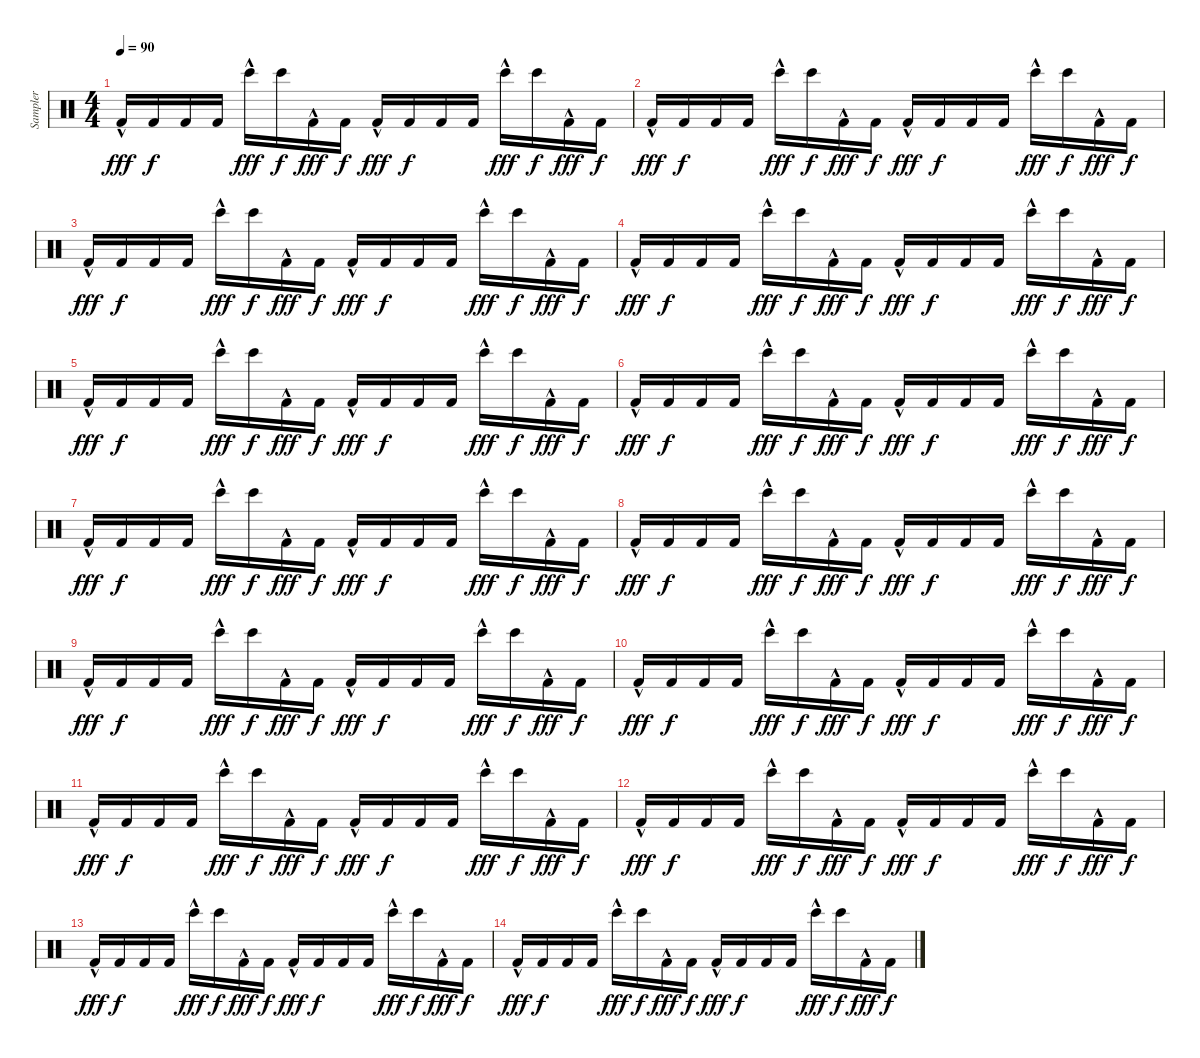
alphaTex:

\track ("Sampler" "Sampler") {instrument percussion}
\staff {score}
\articulation defaults
\ts (4 4)
\tempo 90
\clef neutral
\ks c "Kick (hit) 2"{hac}.16{dy fff} "Kick (hit) 2".16{dy f} "Kick (hit) 2".16 "Kick (hit) 2".16 "Bongo High (hit)"{hac}.16{dy fff} "Bongo High (hit)".16{dy f} "Kick (hit) 2"{hac}.16{dy fff} "Kick (hit) 2".16{dy f} "Kick (hit) 2"{hac}.16{dy fff} "Kick (hit) 2".16{dy f} "Kick (hit) 2".16 "Kick (hit) 2".16 "Bongo High (hit)"{hac}.16{dy fff} "Bongo High (hit)".16{dy f} "Kick (hit) 2"{hac}.16{dy fff} "Kick (hit) 2".16{dy f}
|
"Kick (hit) 2"{hac}.16{dy fff} "Kick (hit) 2".16{dy f} "Kick (hit) 2".16 "Kick (hit) 2".16 "Bongo High (hit)"{hac}.16{dy fff} "Bongo High (hit)".16{dy f} "Kick (hit) 2"{hac}.16{dy fff} "Kick (hit) 2".16{dy f} "Kick (hit) 2"{hac}.16{dy fff} "Kick (hit) 2".16{dy f} "Kick (hit) 2".16 "Kick (hit) 2".16 "Bongo High (hit)"{hac}.16{dy fff} "Bongo High (hit)".16{dy f} "Kick (hit) 2"{hac}.16{dy fff} "Kick (hit) 2".16{dy f} |
"Kick (hit) 2"{hac}.16{dy fff} "Kick (hit) 2".16{dy f} "Kick (hit) 2".16 "Kick (hit) 2".16 "Bongo High (hit)"{hac}.16{dy fff} "Bongo High (hit)".16{dy f} "Kick (hit) 2"{hac}.16{dy fff} "Kick (hit) 2".16{dy f} "Kick (hit) 2"{hac}.16{dy fff} "Kick (hit) 2".16{dy f} "Kick (hit) 2".16 "Kick (hit) 2".16 "Bongo High (hit)"{hac}.16{dy fff} "Bongo High (hit)".16{dy f} "Kick (hit) 2"{hac}.16{dy fff} "Kick (hit) 2".16{dy f} |
"Kick (hit) 2"{hac}.16{dy fff} "Kick (hit) 2".16{dy f} "Kick (hit) 2".16 "Kick (hit) 2".16 "Bongo High (hit)"{hac}.16{dy fff} "Bongo High (hit)".16{dy f} "Kick (hit) 2"{hac}.16{dy fff} "Kick (hit) 2".16{dy f} "Kick (hit) 2"{hac}.16{dy fff} "Kick (hit) 2".16{dy f} "Kick (hit) 2".16 "Kick (hit) 2".16 "Bongo High (hit)"{hac}.16{dy fff} "Bongo High (hit)".16{dy f} "Kick (hit) 2"{hac}.16{dy fff} "Kick (hit) 2".16{dy f} |
"Kick (hit) 2"{hac}.16{dy fff} "Kick (hit) 2".16{dy f} "Kick (hit) 2".16 "Kick (hit) 2".16 "Bongo High (hit)"{hac}.16{dy fff} "Bongo High (hit)".16{dy f} "Kick (hit) 2"{hac}.16{dy fff} "Kick (hit) 2".16{dy f} "Kick (hit) 2"{hac}.16{dy fff} "Kick (hit) 2".16{dy f} "Kick (hit) 2".16 "Kick (hit) 2".16 "Bongo High (hit)"{hac}.16{dy fff} "Bongo High (hit)".16{dy f} "Kick (hit) 2"{hac}.16{dy fff} "Kick (hit) 2".16{dy f} |
"Kick (hit) 2"{hac}.16{dy fff} "Kick (hit) 2".16{dy f} "Kick (hit) 2".16 "Kick (hit) 2".16 "Bongo High (hit)"{hac}.16{dy fff} "Bongo High (hit)".16{dy f} "Kick (hit) 2"{hac}.16{dy fff} "Kick (hit) 2".16{dy f} "Kick (hit) 2"{hac}.16{dy fff} "Kick (hit) 2".16{dy f} "Kick (hit) 2".16 "Kick (hit) 2".16 "Bongo High (hit)"{hac}.16{dy fff} "Bongo High (hit)".16{dy f} "Kick (hit) 2"{hac}.16{dy fff} "Kick (hit) 2".16{dy f} |
"Kick (hit) 2"{hac}.16{dy fff} "Kick (hit) 2".16{dy f} "Kick (hit) 2".16 "Kick (hit) 2".16 "Bongo High (hit)"{hac}.16{dy fff} "Bongo High (hit)".16{dy f} "Kick (hit) 2"{hac}.16{dy fff} "Kick (hit) 2".16{dy f} "Kick (hit) 2"{hac}.16{dy fff} "Kick (hit) 2".16{dy f} "Kick (hit) 2".16 "Kick (hit) 2".16 "Bongo High (hit)"{hac}.16{dy fff} "Bongo High (hit)".16{dy f} "Kick (hit) 2"{hac}.16{dy fff} "Kick (hit) 2".16{dy f} |
"Kick (hit) 2"{hac}.16{dy fff} "Kick (hit) 2".16{dy f} "Kick (hit) 2".16 "Kick (hit) 2".16 "Bongo High (hit)"{hac}.16{dy fff} "Bongo High (hit)".16{dy f} "Kick (hit) 2"{hac}.16{dy fff} "Kick (hit) 2".16{dy f} "Kick (hit) 2"{hac}.16{dy fff} "Kick (hit) 2".16{dy f} "Kick (hit) 2".16 "Kick (hit) 2".16 "Bongo High (hit)"{hac}.16{dy fff} "Bongo High (hit)".16{dy f} "Kick (hit) 2"{hac}.16{dy fff} "Kick (hit) 2".16{dy f} |
"Kick (hit) 2"{hac}.16{dy fff} "Kick (hit) 2".16{dy f} "Kick (hit) 2".16 "Kick (hit) 2".16 "Bongo High (hit)"{hac}.16{dy fff} "Bongo High (hit)".16{dy f} "Kick (hit) 2"{hac}.16{dy fff} "Kick (hit) 2".16{dy f} "Kick (hit) 2"{hac}.16{dy fff} "Kick (hit) 2".16{dy f} "Kick (hit) 2".16 "Kick (hit) 2".16 "Bongo High (hit)"{hac}.16{dy fff} "Bongo High (hit)".16{dy f} "Kick (hit) 2"{hac}.16{dy fff} "Kick (hit) 2".16{dy f} |
"Kick (hit) 2"{hac}.16{dy fff} "Kick (hit) 2".16{dy f} "Kick (hit) 2".16 "Kick (hit) 2".16 "Bongo High (hit)"{hac}.16{dy fff} "Bongo High (hit)".16{dy f} "Kick (hit) 2"{hac}.16{dy fff} "Kick (hit) 2".16{dy f} "Kick (hit) 2"{hac}.16{dy fff} "Kick (hit) 2".16{dy f} "Kick (hit) 2".16 "Kick (hit) 2".16 "Bongo High (hit)"{hac}.16{dy fff} "Bongo High (hit)".16{dy f} "Kick (hit) 2"{hac}.16{dy fff} "Kick (hit) 2".16{dy f} |
"Kick (hit) 2"{hac}.16{dy fff} "Kick (hit) 2".16{dy f} "Kick (hit) 2".16 "Kick (hit) 2".16 "Bongo High (hit)"{hac}.16{dy fff} "Bongo High (hit)".16{dy f} "Kick (hit) 2"{hac}.16{dy fff} "Kick (hit) 2".16{dy f} "Kick (hit) 2"{hac}.16{dy fff} "Kick (hit) 2".16{dy f} "Kick (hit) 2".16 "Kick (hit) 2".16 "Bongo High (hit)"{hac}.16{dy fff} "Bongo High (hit)".16{dy f} "Kick (hit) 2"{hac}.16{dy fff} "Kick (hit) 2".16{dy f} |
"Kick (hit) 2"{hac}.16{dy fff} "Kick (hit) 2".16{dy f} "Kick (hit) 2".16 "Kick (hit) 2".16 "Bongo High (hit)"{hac}.16{dy fff} "Bongo High (hit)".16{dy f} "Kick (hit) 2"{hac}.16{dy fff} "Kick (hit) 2".16{dy f} "Kick (hit) 2"{hac}.16{dy fff} "Kick (hit) 2".16{dy f} "Kick (hit) 2".16 "Kick (hit) 2".16 "Bongo High (hit)"{hac}.16{dy fff} "Bongo High (hit)".16{dy f} "Kick (hit) 2"{hac}.16{dy fff} "Kick (hit) 2".16{dy f} |
"Kick (hit) 2"{hac}.16{dy fff} "Kick (hit) 2".16{dy f} "Kick (hit) 2".16 "Kick (hit) 2".16 "Bongo High (hit)"{hac}.16{dy fff} "Bongo High (hit)".16{dy f} "Kick (hit) 2"{hac}.16{dy fff} "Kick (hit) 2".16{dy f} "Kick (hit) 2"{hac}.16{dy fff} "Kick (hit) 2".16{dy f} "Kick (hit) 2".16 "Kick (hit) 2".16 "Bongo High (hit)"{hac}.16{dy fff} "Bongo High (hit)".16{dy f} "Kick (hit) 2"{hac}.16{dy fff} "Kick (hit) 2".16{dy f} |
"Kick (hit) 2"{hac}.16{dy fff} "Kick (hit) 2".16{dy f} "Kick (hit) 2".16 "Kick (hit) 2".16 "Bongo High (hit)"{hac}.16{dy fff} "Bongo High (hit)".16{dy f} "Kick (hit) 2"{hac}.16{dy fff} "Kick (hit) 2".16{dy f} "Kick (hit) 2"{hac}.16{dy fff} "Kick (hit) 2".16{dy f} "Kick (hit) 2".16 "Kick (hit) 2".16 "Bongo High (hit)"{hac}.16{dy fff} "Bongo High (hit)".16{dy f} "Kick (hit) 2"{hac}.16{dy fff} "Kick (hit) 2".16{dy f}
